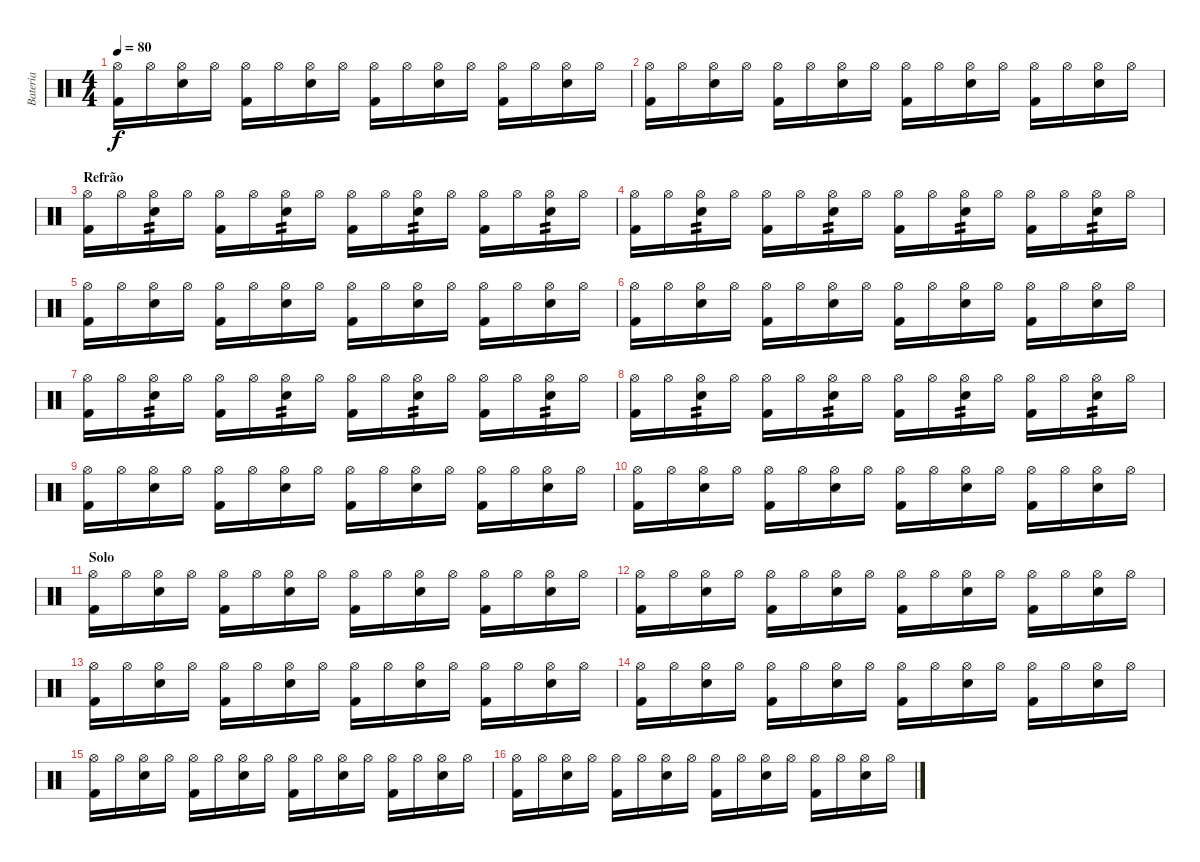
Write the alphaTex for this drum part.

\track ("Bateria" "Bateria") {instrument percussion}
\staff {score}
\articulation defaults
\ts (4 4)
\tempo 80
\clef neutral
\ks c
("Hi-Hat (open)" "Kick (hit) 2").16{dy f} "Hi-Hat (open)".16 ("Hi-Hat (open)" "Electric Snare (hit)").16 "Hi-Hat (open)".16 ("Hi-Hat (open)" "Kick (hit) 2").16 "Hi-Hat (open)".16 ("Hi-Hat (open)" "Electric Snare (hit)").16 "Hi-Hat (open)".16 ("Hi-Hat (open)" "Kick (hit) 2").16 "Hi-Hat (open)".16 ("Hi-Hat (open)" "Electric Snare (hit)").16 "Hi-Hat (open)".16 ("Hi-Hat (open)" "Kick (hit) 2").16 "Hi-Hat (open)".16 ("Hi-Hat (open)" "Electric Snare (hit)").16 "Hi-Hat (open)".16 |
("Hi-Hat (open)" "Kick (hit) 2").16 "Hi-Hat (open)".16 ("Hi-Hat (open)" "Electric Snare (hit)").16 "Hi-Hat (open)".16 ("Hi-Hat (open)" "Kick (hit) 2").16 "Hi-Hat (open)".16 ("Hi-Hat (open)" "Electric Snare (hit)").16 "Hi-Hat (open)".16 ("Hi-Hat (open)" "Kick (hit) 2").16 "Hi-Hat (open)".16 ("Hi-Hat (open)" "Electric Snare (hit)").16 "Hi-Hat (open)".16 ("Hi-Hat (open)" "Kick (hit) 2").16 "Hi-Hat (open)".16 ("Hi-Hat (open)" "Electric Snare (hit)").16 "Hi-Hat (open)".16 |
\section ("" "Refrão")
("Hi-Hat (open)" "Kick (hit) 2").16 "Hi-Hat (open)".16 ("Hi-Hat (open)" "Electric Snare (hit)").16{tp 2} "Hi-Hat (open)".16 ("Hi-Hat (open)" "Kick (hit) 2").16 "Hi-Hat (open)".16 ("Hi-Hat (open)" "Electric Snare (hit)").16{tp 2} "Hi-Hat (open)".16 ("Hi-Hat (open)" "Kick (hit) 2").16 "Hi-Hat (open)".16 ("Hi-Hat (open)" "Electric Snare (hit)").16{tp 2} "Hi-Hat (open)".16 ("Hi-Hat (open)" "Kick (hit) 2").16 "Hi-Hat (open)".16 ("Hi-Hat (open)" "Electric Snare (hit)").16{tp 2} "Hi-Hat (open)".16 |
("Hi-Hat (open)" "Kick (hit) 2").16 "Hi-Hat (open)".16 ("Hi-Hat (open)" "Electric Snare (hit)").16{tp 2} "Hi-Hat (open)".16 ("Hi-Hat (open)" "Kick (hit) 2").16 "Hi-Hat (open)".16 ("Hi-Hat (open)" "Electric Snare (hit)").16{tp 2} "Hi-Hat (open)".16 ("Hi-Hat (open)" "Kick (hit) 2").16 "Hi-Hat (open)".16 ("Hi-Hat (open)" "Electric Snare (hit)").16{tp 2} "Hi-Hat (open)".16 ("Hi-Hat (open)" "Kick (hit) 2").16 "Hi-Hat (open)".16 ("Hi-Hat (open)" "Electric Snare (hit)").16{tp 2} "Hi-Hat (open)".16 |
("Hi-Hat (open)" "Kick (hit) 2").16 "Hi-Hat (open)".16 ("Hi-Hat (open)" "Electric Snare (hit)").16 "Hi-Hat (open)".16 ("Hi-Hat (open)" "Kick (hit) 2").16 "Hi-Hat (open)".16 ("Hi-Hat (open)" "Electric Snare (hit)").16 "Hi-Hat (open)".16 ("Hi-Hat (open)" "Kick (hit) 2").16 "Hi-Hat (open)".16 ("Hi-Hat (open)" "Electric Snare (hit)").16 "Hi-Hat (open)".16 ("Hi-Hat (open)" "Kick (hit) 2").16 "Hi-Hat (open)".16 ("Hi-Hat (open)" "Electric Snare (hit)").16 "Hi-Hat (open)".16 |
("Hi-Hat (open)" "Kick (hit) 2").16 "Hi-Hat (open)".16 ("Hi-Hat (open)" "Electric Snare (hit)").16 "Hi-Hat (open)".16 ("Hi-Hat (open)" "Kick (hit) 2").16 "Hi-Hat (open)".16 ("Hi-Hat (open)" "Electric Snare (hit)").16 "Hi-Hat (open)".16 ("Hi-Hat (open)" "Kick (hit) 2").16 "Hi-Hat (open)".16 ("Hi-Hat (open)" "Electric Snare (hit)").16 "Hi-Hat (open)".16 ("Hi-Hat (open)" "Kick (hit) 2").16 "Hi-Hat (open)".16 ("Hi-Hat (open)" "Electric Snare (hit)").16 "Hi-Hat (open)".16 |
("Hi-Hat (open)" "Kick (hit) 2").16 "Hi-Hat (open)".16 ("Hi-Hat (open)" "Electric Snare (hit)").16{tp 2} "Hi-Hat (open)".16 ("Hi-Hat (open)" "Kick (hit) 2").16 "Hi-Hat (open)".16 ("Hi-Hat (open)" "Electric Snare (hit)").16{tp 2} "Hi-Hat (open)".16 ("Hi-Hat (open)" "Kick (hit) 2").16 "Hi-Hat (open)".16 ("Hi-Hat (open)" "Electric Snare (hit)").16{tp 2} "Hi-Hat (open)".16 ("Hi-Hat (open)" "Kick (hit) 2").16 "Hi-Hat (open)".16 ("Hi-Hat (open)" "Electric Snare (hit)").16{tp 2} "Hi-Hat (open)".16 |
("Hi-Hat (open)" "Kick (hit) 2").16 "Hi-Hat (open)".16 ("Hi-Hat (open)" "Electric Snare (hit)").16{tp 2} "Hi-Hat (open)".16 ("Hi-Hat (open)" "Kick (hit) 2").16 "Hi-Hat (open)".16 ("Hi-Hat (open)" "Electric Snare (hit)").16{tp 2} "Hi-Hat (open)".16 ("Hi-Hat (open)" "Kick (hit) 2").16 "Hi-Hat (open)".16 ("Hi-Hat (open)" "Electric Snare (hit)").16{tp 2} "Hi-Hat (open)".16 ("Hi-Hat (open)" "Kick (hit) 2").16 "Hi-Hat (open)".16 ("Hi-Hat (open)" "Electric Snare (hit)").16{tp 2} "Hi-Hat (open)".16 |
("Hi-Hat (open)" "Kick (hit) 2").16 "Hi-Hat (open)".16 ("Hi-Hat (open)" "Electric Snare (hit)").16 "Hi-Hat (open)".16 ("Hi-Hat (open)" "Kick (hit) 2").16 "Hi-Hat (open)".16 ("Hi-Hat (open)" "Electric Snare (hit)").16 "Hi-Hat (open)".16 ("Hi-Hat (open)" "Kick (hit) 2").16 "Hi-Hat (open)".16 ("Hi-Hat (open)" "Electric Snare (hit)").16 "Hi-Hat (open)".16 ("Hi-Hat (open)" "Kick (hit) 2").16 "Hi-Hat (open)".16 ("Hi-Hat (open)" "Electric Snare (hit)").16 "Hi-Hat (open)".16 |
("Hi-Hat (open)" "Kick (hit) 2").16 "Hi-Hat (open)".16 ("Hi-Hat (open)" "Electric Snare (hit)").16 "Hi-Hat (open)".16 ("Hi-Hat (open)" "Kick (hit) 2").16 "Hi-Hat (open)".16 ("Hi-Hat (open)" "Electric Snare (hit)").16 "Hi-Hat (open)".16 ("Hi-Hat (open)" "Kick (hit) 2").16 "Hi-Hat (open)".16 ("Hi-Hat (open)" "Electric Snare (hit)").16 "Hi-Hat (open)".16 ("Hi-Hat (open)" "Kick (hit) 2").16 "Hi-Hat (open)".16 ("Hi-Hat (open)" "Electric Snare (hit)").16 "Hi-Hat (open)".16 |
\section ("" "Solo")
("Hi-Hat (open)" "Kick (hit) 2").16 "Hi-Hat (open)".16 ("Hi-Hat (open)" "Electric Snare (hit)").16 "Hi-Hat (open)".16 ("Hi-Hat (open)" "Kick (hit) 2").16 "Hi-Hat (open)".16 ("Hi-Hat (open)" "Electric Snare (hit)").16 "Hi-Hat (open)".16 ("Hi-Hat (open)" "Kick (hit) 2").16 "Hi-Hat (open)".16 ("Hi-Hat (open)" "Electric Snare (hit)").16 "Hi-Hat (open)".16 ("Hi-Hat (open)" "Kick (hit) 2").16 "Hi-Hat (open)".16 ("Hi-Hat (open)" "Electric Snare (hit)").16 "Hi-Hat (open)".16 |
("Hi-Hat (open)" "Kick (hit) 2").16 "Hi-Hat (open)".16 ("Hi-Hat (open)" "Electric Snare (hit)").16 "Hi-Hat (open)".16 ("Hi-Hat (open)" "Kick (hit) 2").16 "Hi-Hat (open)".16 ("Hi-Hat (open)" "Electric Snare (hit)").16 "Hi-Hat (open)".16 ("Hi-Hat (open)" "Kick (hit) 2").16 "Hi-Hat (open)".16 ("Hi-Hat (open)" "Electric Snare (hit)").16 "Hi-Hat (open)".16 ("Hi-Hat (open)" "Kick (hit) 2").16 "Hi-Hat (open)".16 ("Hi-Hat (open)" "Electric Snare (hit)").16 "Hi-Hat (open)".16 |
("Hi-Hat (open)" "Kick (hit) 2").16 "Hi-Hat (open)".16 ("Hi-Hat (open)" "Electric Snare (hit)").16 "Hi-Hat (open)".16 ("Hi-Hat (open)" "Kick (hit) 2").16 "Hi-Hat (open)".16 ("Hi-Hat (open)" "Electric Snare (hit)").16 "Hi-Hat (open)".16 ("Hi-Hat (open)" "Kick (hit) 2").16 "Hi-Hat (open)".16 ("Hi-Hat (open)" "Electric Snare (hit)").16 "Hi-Hat (open)".16 ("Hi-Hat (open)" "Kick (hit) 2").16 "Hi-Hat (open)".16 ("Hi-Hat (open)" "Electric Snare (hit)").16 "Hi-Hat (open)".16 |
("Hi-Hat (open)" "Kick (hit) 2").16 "Hi-Hat (open)".16 ("Hi-Hat (open)" "Electric Snare (hit)").16 "Hi-Hat (open)".16 ("Hi-Hat (open)" "Kick (hit) 2").16 "Hi-Hat (open)".16 ("Hi-Hat (open)" "Electric Snare (hit)").16 "Hi-Hat (open)".16 ("Hi-Hat (open)" "Kick (hit) 2").16 "Hi-Hat (open)".16 ("Hi-Hat (open)" "Electric Snare (hit)").16 "Hi-Hat (open)".16 ("Hi-Hat (open)" "Kick (hit) 2").16 "Hi-Hat (open)".16 ("Hi-Hat (open)" "Electric Snare (hit)").16 "Hi-Hat (open)".16 |
("Hi-Hat (open)" "Kick (hit) 2").16 "Hi-Hat (open)".16 ("Hi-Hat (open)" "Electric Snare (hit)").16 "Hi-Hat (open)".16 ("Hi-Hat (open)" "Kick (hit) 2").16 "Hi-Hat (open)".16 ("Hi-Hat (open)" "Electric Snare (hit)").16 "Hi-Hat (open)".16 ("Hi-Hat (open)" "Kick (hit) 2").16 "Hi-Hat (open)".16 ("Hi-Hat (open)" "Electric Snare (hit)").16 "Hi-Hat (open)".16 ("Hi-Hat (open)" "Kick (hit) 2").16 "Hi-Hat (open)".16 ("Hi-Hat (open)" "Electric Snare (hit)").16 "Hi-Hat (open)".16 |
("Hi-Hat (open)" "Kick (hit) 2").16 "Hi-Hat (open)".16 ("Hi-Hat (open)" "Electric Snare (hit)").16 "Hi-Hat (open)".16 ("Hi-Hat (open)" "Kick (hit) 2").16 "Hi-Hat (open)".16 ("Hi-Hat (open)" "Electric Snare (hit)").16 "Hi-Hat (open)".16 ("Hi-Hat (open)" "Kick (hit) 2").16 "Hi-Hat (open)".16 ("Hi-Hat (open)" "Electric Snare (hit)").16 "Hi-Hat (open)".16 ("Hi-Hat (open)" "Kick (hit) 2").16 "Hi-Hat (open)".16 ("Hi-Hat (open)" "Electric Snare (hit)").16 "Hi-Hat (open)".16
